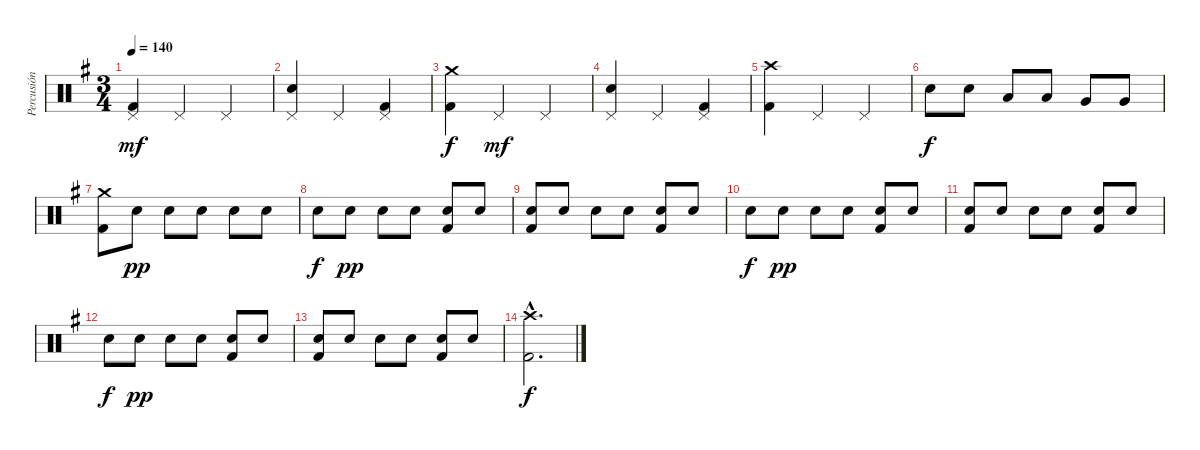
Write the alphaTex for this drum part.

\track ("Percusión" "Percusión") {instrument percussion}
\staff {score}
\articulation defaults
\ts (3 4)
\tempo 140
\clef neutral
\ks g
("Pedal Hi-Hat (hit)" "Kick (hit) 2").4{dy mf} "Pedal Hi-Hat (hit)".4 "Pedal Hi-Hat (hit)".4 |
("Pedal Hi-Hat (hit)" "Snare (hit) 2").4 "Pedal Hi-Hat (hit)".4 ("Pedal Hi-Hat (hit)" "Kick (hit) 2").4 |
("Crash medium (hit)" "Kick (hit) 2").4{dy f} "Pedal Hi-Hat (hit)".4{dy mf} "Pedal Hi-Hat (hit)".4 |
("Pedal Hi-Hat (hit)" "Snare (hit) 2").4 "Pedal Hi-Hat (hit)".4 ("Pedal Hi-Hat (hit)" "Kick (hit) 2").4 |
("Crash high (hit)" "Kick (hit) 2").4 "Pedal Hi-Hat (hit)".4 "Pedal Hi-Hat (hit)".4 |
"Snare (hit) 2".8{dy f} "Snare (hit) 2".8 "Low Tom (hit)".8 "Low Tom (hit)".8 "Very Low Tom (hit)".8 "Very Low Tom (hit)".8 |
("Crash medium (hit)" "Kick (hit) 2").8{volume 1} "Snare (hit) 2".8{dy pp} "Snare (hit) 2".8 "Snare (hit) 2".8 "Snare (hit) 2".8 "Snare (hit) 2".8 |
"Snare (hit) 2".8{dy f} "Snare (hit) 2".8{dy pp} "Snare (hit) 2".8 "Snare (hit) 2".8 ("Snare (hit) 2" "Kick (hit) 2").8 "Snare (hit) 2".8 |
("Snare (hit) 2" "Kick (hit) 2").8 "Snare (hit) 2".8 "Snare (hit) 2".8 "Snare (hit) 2".8 ("Snare (hit) 2" "Kick (hit) 2").8 "Snare (hit) 2".8 |
"Snare (hit) 2".8{dy f} "Snare (hit) 2".8{dy pp} "Snare (hit) 2".8 "Snare (hit) 2".8 ("Snare (hit) 2" "Kick (hit) 2").8 "Snare (hit) 2".8 |
("Snare (hit) 2" "Kick (hit) 2").8 "Snare (hit) 2".8 "Snare (hit) 2".8 "Snare (hit) 2".8 ("Snare (hit) 2" "Kick (hit) 2").8 "Snare (hit) 2".8 |
"Snare (hit) 2".8{dy f} "Snare (hit) 2".8{dy pp} "Snare (hit) 2".8 "Snare (hit) 2".8 ("Snare (hit) 2" "Kick (hit) 2").8 "Snare (hit) 2".8 |
("Snare (hit) 2" "Kick (hit) 2").8 "Snare (hit) 2".8 "Snare (hit) 2".8 "Snare (hit) 2".8 ("Snare (hit) 2" "Kick (hit) 2").8 "Snare (hit) 2".8 |
("Crash high (hit)"{hac} "Kick (hit) 2"{hac}).2{d dy f}
